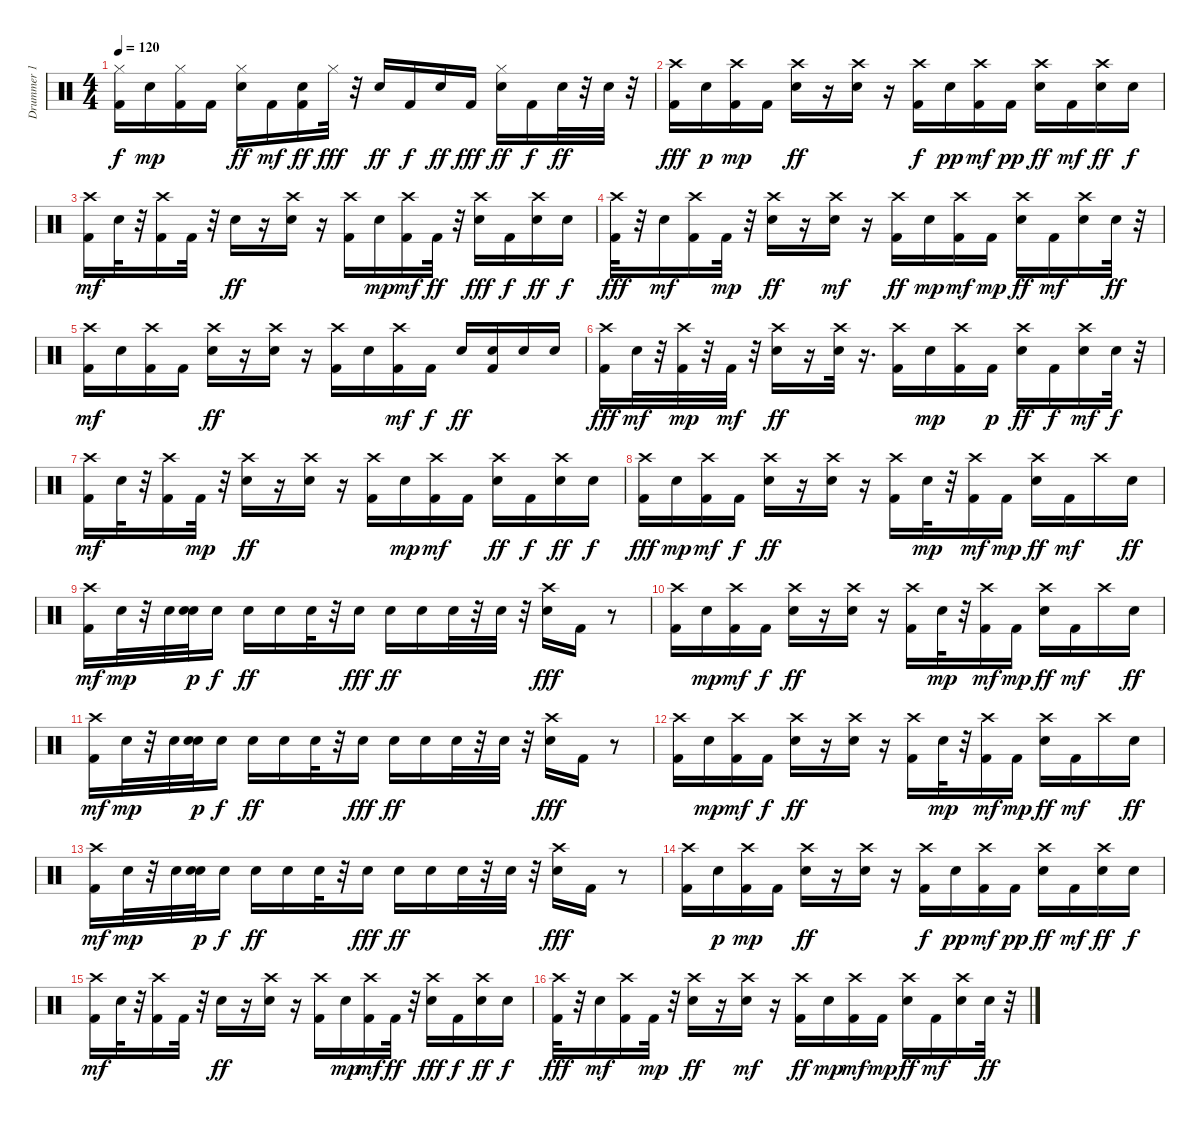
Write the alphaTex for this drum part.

\track ("Drummer 1" "Drummer 1") {instrument percussion}
\staff {score}
\articulation defaults
\ts (4 4)
\tempo 120
\clef neutral
\ks c
("Hi-Hat (closed)" "Kick (hit) 2").16{dy f} "Electric Snare (hit)".16{dy mp} ("Kick (hit) 2" "Hi-Hat (closed)").16 "Kick (hit) 2".16 ("Electric Snare (hit)" "Hi-Hat (closed)").16{dy ff} "Kick (hit) 2".16{dy mf} ("Kick (hit) 2" "Electric Snare (hit)").16{dy ff} "Hi-Hat (closed)".32{dy fff} r.32 "Electric Snare (hit)".16{dy ff} "Kick (hit) 2".16{dy f} "Electric Snare (hit)".16{dy ff} "Kick (hit) 2".16{dy fff} ("Hi-Hat (closed)" "Electric Snare (hit)").16{dy ff} "Kick (hit) 2".16{dy f} "Electric Snare (hit)".32{dy ff} r.32 "Electric Snare (hit)".32 r.32 |
("Crash high (hit)" "Kick (hit) 2").16{dy fff} "Electric Snare (hit)".16{dy p} ("Kick (hit) 2" "Crash high (hit)").16{dy mp} "Kick (hit) 2".16 ("Electric Snare (hit)" "Crash high (hit)").16{dy ff} r.16 ("Electric Snare (hit)" "Crash high (hit)").16 r.16 ("Kick (hit) 2" "Crash high (hit)").16{dy f} "Electric Snare (hit)".16{dy pp} ("Kick (hit) 2" "Crash high (hit)").16{dy mf} "Kick (hit) 2".16{dy pp} ("Electric Snare (hit)" "Crash high (hit)").16{dy ff} "Kick (hit) 2".16{dy mf} ("Electric Snare (hit)" "Crash high (hit)").16{dy ff} "Electric Snare (hit)".16{dy f} |
("Kick (hit) 2" "Crash high (hit)").16{dy mf} "Electric Snare (hit)".32 r.32 ("Kick (hit) 2" "Crash high (hit)").16 "Kick (hit) 2".32 r.32 "Electric Snare (hit)".16{dy ff} r.16 ("Electric Snare (hit)" "Crash high (hit)").16 r.16 ("Kick (hit) 2" "Crash high (hit)").16 "Electric Snare (hit)".16{dy mp} ("Kick (hit) 2" "Crash high (hit)").16{dy mf} "Kick (hit) 2".32{dy ff} r.32 ("Electric Snare (hit)" "Crash high (hit)").16{dy fff} "Kick (hit) 2".16{dy f} ("Electric Snare (hit)" "Crash high (hit)").16{dy ff} "Electric Snare (hit)".16{dy f} |
("Crash high (hit)" "Kick (hit) 2").32{dy fff} r.32 "Electric Snare (hit)".16{dy mf} ("Kick (hit) 2" "Crash high (hit)").16 "Kick (hit) 2".32{dy mp} r.32 ("Electric Snare (hit)" "Crash high (hit)").16{dy ff} r.16 ("Electric Snare (hit)" "Crash high (hit)").16{dy mf} r.16 ("Kick (hit) 2" "Crash high (hit)").16{dy ff} "Electric Snare (hit)".16{dy mp} ("Kick (hit) 2" "Crash high (hit)").16{dy mf} "Kick (hit) 2".16{dy mp} ("Electric Snare (hit)" "Crash high (hit)").16{dy ff} "Kick (hit) 2".16{dy mf} ("Electric Snare (hit)" "Crash high (hit)").16 "Electric Snare (hit)".32{dy ff} r.32 |
("Kick (hit) 2" "Crash high (hit)").16{dy mf} "Electric Snare (hit)".16 ("Kick (hit) 2" "Crash high (hit)").16 "Kick (hit) 2".16 ("Electric Snare (hit)" "Crash high (hit)").16{dy ff} r.16 ("Electric Snare (hit)" "Crash high (hit)").16 r.16 ("Kick (hit) 2" "Crash high (hit)").16 "Electric Snare (hit)".16 ("Kick (hit) 2" "Crash high (hit)").16{dy mf} "Kick (hit) 2".16{dy f} "Electric Snare (hit)".16{dy ff} ("Kick (hit) 2" "Electric Snare (hit)").16 "Electric Snare (hit)".16 "Electric Snare (hit)".16 |
("Crash high (hit)" "Kick (hit) 2").16{dy fff} "Electric Snare (hit)".32{dy mf} r.32 ("Kick (hit) 2" "Crash high (hit)").32{dy mp} r.32 "Kick (hit) 2".32{dy mf} r.32 ("Electric Snare (hit)" "Crash high (hit)").16{dy ff} r.16 ("Electric Snare (hit)" "Crash high (hit)").32 r.16{d} ("Kick (hit) 2" "Crash high (hit)").16 "Electric Snare (hit)".16{dy mp} ("Kick (hit) 2" "Crash high (hit)").16 "Kick (hit) 2".16{dy p} ("Electric Snare (hit)" "Crash high (hit)").16{dy ff} "Kick (hit) 2".16{dy f} ("Electric Snare (hit)" "Crash high (hit)").16{dy mf} "Electric Snare (hit)".32{dy f} r.32 |
("Kick (hit) 2" "Crash high (hit)").16{dy mf} "Electric Snare (hit)".32 r.32 ("Kick (hit) 2" "Crash high (hit)").16 "Kick (hit) 2".32{dy mp} r.32 ("Electric Snare (hit)" "Crash high (hit)").16{dy ff} r.16 ("Electric Snare (hit)" "Crash high (hit)").16 r.16 ("Kick (hit) 2" "Crash high (hit)").16 "Electric Snare (hit)".16{dy mp} ("Kick (hit) 2" "Crash high (hit)").16{dy mf} "Kick (hit) 2".16 ("Electric Snare (hit)" "Crash high (hit)").16{dy ff} "Kick (hit) 2".16{dy f} ("Electric Snare (hit)" "Crash high (hit)").16{dy ff} "Electric Snare (hit)".16{dy f} |
("Crash high (hit)" "Kick (hit) 2").16{dy fff} "Electric Snare (hit)".16{dy mp} ("Kick (hit) 2" "Crash high (hit)").16{dy mf} "Kick (hit) 2".16{dy f} ("Electric Snare (hit)" "Crash high (hit)").16{dy ff} r.16 ("Electric Snare (hit)" "Crash high (hit)").16 r.16 ("Kick (hit) 2" "Crash high (hit)").16 "Electric Snare (hit)".32{dy mp} r.32 ("Kick (hit) 2" "Crash high (hit)").16{dy mf} "Kick (hit) 2".16{dy mp} ("Electric Snare (hit)" "Crash high (hit)").16{dy ff} "Kick (hit) 2".16{dy mf} "Crash high (hit)".16 "Electric Snare (hit)".16{dy ff} |
("Kick (hit) 2" "Crash high (hit)").16{dy mf} "Electric Snare (hit)".32{dy mp} r.32 "Electric Snare (hit)".32 ("Electric Snare (hit)" "Electric Snare (hit)").32{dy p} "Electric Snare (hit)".16{dy f} "Electric Snare (hit)".16{dy ff} "Electric Snare (hit)".16 "Electric Snare (hit)".32 r.32 "Electric Snare (hit)".16{dy fff} "Electric Snare (hit)".16{dy ff} "Electric Snare (hit)".16 "Electric Snare (hit)".32 r.32 "Electric Snare (hit)".32 r.32 ("Electric Snare (hit)" "Crash high (hit)").16{dy fff} "Kick (hit) 2".16 r.8 |
("Crash high (hit)" "Kick (hit) 2").16 "Electric Snare (hit)".16{dy mp} ("Kick (hit) 2" "Crash high (hit)").16{dy mf} "Kick (hit) 2".16{dy f} ("Electric Snare (hit)" "Crash high (hit)").16{dy ff} r.16 ("Electric Snare (hit)" "Crash high (hit)").16 r.16 ("Kick (hit) 2" "Crash high (hit)").16 "Electric Snare (hit)".32{dy mp} r.32 ("Kick (hit) 2" "Crash high (hit)").16{dy mf} "Kick (hit) 2".16{dy mp} ("Electric Snare (hit)" "Crash high (hit)").16{dy ff} "Kick (hit) 2".16{dy mf} "Crash high (hit)".16 "Electric Snare (hit)".16{dy ff} |
("Kick (hit) 2" "Crash high (hit)").16{dy mf} "Electric Snare (hit)".32{dy mp} r.32 "Electric Snare (hit)".32 ("Electric Snare (hit)" "Electric Snare (hit)").32{dy p} "Electric Snare (hit)".16{dy f} "Electric Snare (hit)".16{dy ff} "Electric Snare (hit)".16 "Electric Snare (hit)".32 r.32 "Electric Snare (hit)".16{dy fff} "Electric Snare (hit)".16{dy ff} "Electric Snare (hit)".16 "Electric Snare (hit)".32 r.32 "Electric Snare (hit)".32 r.32 ("Electric Snare (hit)" "Crash high (hit)").16{dy fff} "Kick (hit) 2".16 r.8 |
("Crash high (hit)" "Kick (hit) 2").16 "Electric Snare (hit)".16{dy mp} ("Kick (hit) 2" "Crash high (hit)").16{dy mf} "Kick (hit) 2".16{dy f} ("Electric Snare (hit)" "Crash high (hit)").16{dy ff} r.16 ("Electric Snare (hit)" "Crash high (hit)").16 r.16 ("Kick (hit) 2" "Crash high (hit)").16 "Electric Snare (hit)".32{dy mp} r.32 ("Kick (hit) 2" "Crash high (hit)").16{dy mf} "Kick (hit) 2".16{dy mp} ("Electric Snare (hit)" "Crash high (hit)").16{dy ff} "Kick (hit) 2".16{dy mf} "Crash high (hit)".16 "Electric Snare (hit)".16{dy ff} |
("Kick (hit) 2" "Crash high (hit)").16{dy mf} "Electric Snare (hit)".32{dy mp} r.32 "Electric Snare (hit)".32 ("Electric Snare (hit)" "Electric Snare (hit)").32{dy p} "Electric Snare (hit)".16{dy f} "Electric Snare (hit)".16{dy ff} "Electric Snare (hit)".16 "Electric Snare (hit)".32 r.32 "Electric Snare (hit)".16{dy fff} "Electric Snare (hit)".16{dy ff} "Electric Snare (hit)".16 "Electric Snare (hit)".32 r.32 "Electric Snare (hit)".32 r.32 ("Electric Snare (hit)" "Crash high (hit)").16{dy fff} "Kick (hit) 2".16 r.8 |
("Crash high (hit)" "Kick (hit) 2").16 "Electric Snare (hit)".16{dy p} ("Kick (hit) 2" "Crash high (hit)").16{dy mp} "Kick (hit) 2".16 ("Electric Snare (hit)" "Crash high (hit)").16{dy ff} r.16 ("Electric Snare (hit)" "Crash high (hit)").16 r.16 ("Kick (hit) 2" "Crash high (hit)").16{dy f} "Electric Snare (hit)".16{dy pp} ("Kick (hit) 2" "Crash high (hit)").16{dy mf} "Kick (hit) 2".16{dy pp} ("Electric Snare (hit)" "Crash high (hit)").16{dy ff} "Kick (hit) 2".16{dy mf} ("Electric Snare (hit)" "Crash high (hit)").16{dy ff} "Electric Snare (hit)".16{dy f} |
("Kick (hit) 2" "Crash high (hit)").16{dy mf} "Electric Snare (hit)".32 r.32 ("Kick (hit) 2" "Crash high (hit)").16 "Kick (hit) 2".32 r.32 "Electric Snare (hit)".16{dy ff} r.16 ("Electric Snare (hit)" "Crash high (hit)").16 r.16 ("Kick (hit) 2" "Crash high (hit)").16 "Electric Snare (hit)".16{dy mp} ("Kick (hit) 2" "Crash high (hit)").16{dy mf} "Kick (hit) 2".32{dy ff} r.32 ("Electric Snare (hit)" "Crash high (hit)").16{dy fff} "Kick (hit) 2".16{dy f} ("Electric Snare (hit)" "Crash high (hit)").16{dy ff} "Electric Snare (hit)".16{dy f} |
("Crash high (hit)" "Kick (hit) 2").32{dy fff} r.32 "Electric Snare (hit)".16{dy mf} ("Kick (hit) 2" "Crash high (hit)").16 "Kick (hit) 2".32{dy mp} r.32 ("Electric Snare (hit)" "Crash high (hit)").16{dy ff} r.16 ("Electric Snare (hit)" "Crash high (hit)").16{dy mf} r.16 ("Kick (hit) 2" "Crash high (hit)").16{dy ff} "Electric Snare (hit)".16{dy mp} ("Kick (hit) 2" "Crash high (hit)").16{dy mf} "Kick (hit) 2".16{dy mp} ("Electric Snare (hit)" "Crash high (hit)").16{dy ff} "Kick (hit) 2".16{dy mf} ("Electric Snare (hit)" "Crash high (hit)").16 "Electric Snare (hit)".32{dy ff} r.32
